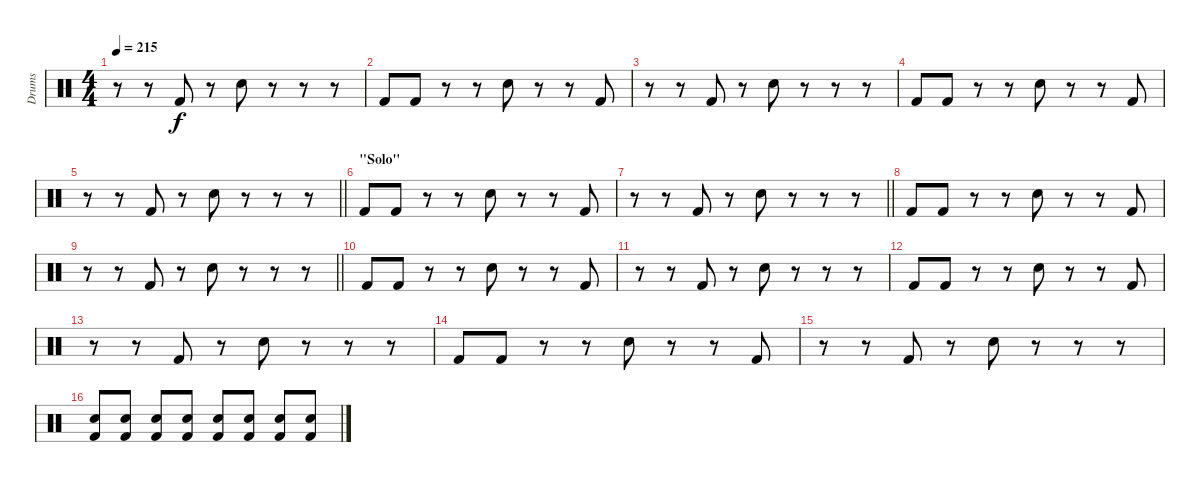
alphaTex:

\track ("Drums" "Drums") {instrument percussion}
\staff {score}
\articulation defaults
\ts (4 4)
\tempo 215
\clef neutral
\ks c
r.8{dy f} r.8 "Kick (hit) 2".8 r.8 "Electric Snare (hit)".8 r.8 r.8 r.8 |
"Kick (hit) 2".8 "Kick (hit) 2".8 r.8 r.8 "Electric Snare (hit)".8 r.8 r.8 "Kick (hit) 2".8 |
r.8 r.8 "Kick (hit) 2".8 r.8 "Electric Snare (hit)".8 r.8 r.8 r.8 |
"Kick (hit) 2".8 "Kick (hit) 2".8 r.8 r.8 "Electric Snare (hit)".8 r.8 r.8 "Kick (hit) 2".8 |
\barLineRight lightlight
r.8 r.8 "Kick (hit) 2".8 r.8 "Electric Snare (hit)".8 r.8 r.8 r.8 |
\section ("" "\"Solo\"")
"Kick (hit) 2".8 "Kick (hit) 2".8 r.8 r.8 "Electric Snare (hit)".8 r.8 r.8 "Kick (hit) 2".8 |
\barLineRight lightlight
r.8 r.8 "Kick (hit) 2".8 r.8 "Electric Snare (hit)".8 r.8 r.8 r.8 |
"Kick (hit) 2".8 "Kick (hit) 2".8 r.8 r.8 "Electric Snare (hit)".8 r.8 r.8 "Kick (hit) 2".8 |
\barLineRight lightlight
r.8 r.8 "Kick (hit) 2".8 r.8 "Electric Snare (hit)".8 r.8 r.8 r.8 |
"Kick (hit) 2".8 "Kick (hit) 2".8 r.8 r.8 "Electric Snare (hit)".8 r.8 r.8 "Kick (hit) 2".8 |
r.8 r.8 "Kick (hit) 2".8 r.8 "Electric Snare (hit)".8 r.8 r.8 r.8 |
"Kick (hit) 2".8 "Kick (hit) 2".8 r.8 r.8 "Electric Snare (hit)".8 r.8 r.8 "Kick (hit) 2".8 |
r.8 r.8 "Kick (hit) 2".8 r.8 "Electric Snare (hit)".8 r.8 r.8 r.8 |
"Kick (hit) 2".8 "Kick (hit) 2".8 r.8 r.8 "Electric Snare (hit)".8 r.8 r.8 "Kick (hit) 2".8 |
r.8 r.8 "Kick (hit) 2".8 r.8 "Electric Snare (hit)".8 r.8 r.8 r.8 |
("Kick (hit) 2" "Snare (hit) 2").8 ("Kick (hit) 2" "Snare (hit) 2").8 ("Kick (hit) 2" "Snare (hit) 2").8 ("Kick (hit) 2" "Snare (hit) 2").8 ("Kick (hit) 2" "Snare (hit) 2").8 ("Kick (hit) 2" "Snare (hit) 2").8 ("Kick (hit) 2" "Snare (hit) 2").8 ("Kick (hit) 2" "Snare (hit) 2").8
